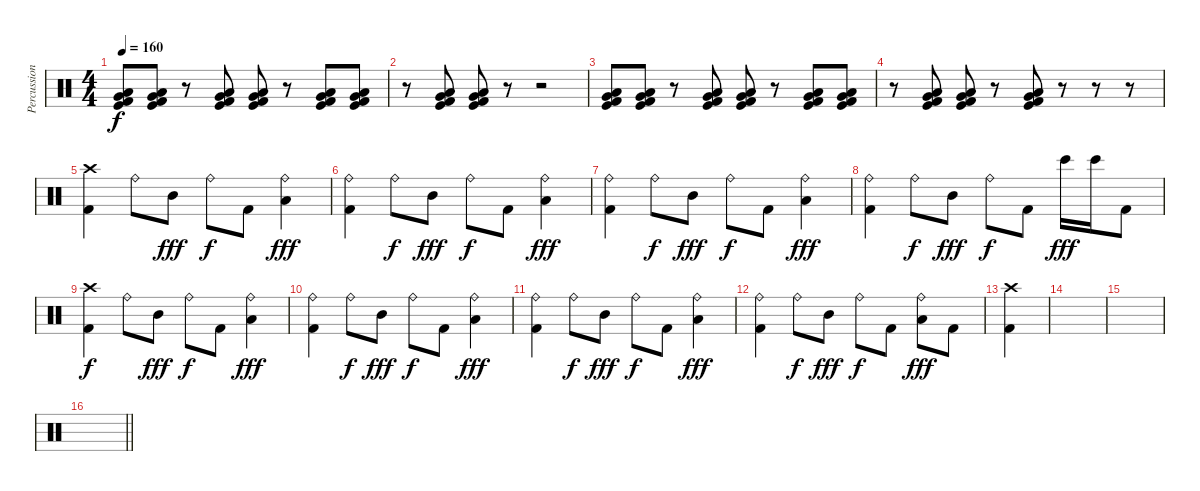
\track ("Percussion" "Percussion") {instrument percussion}
\staff {score}
\articulation defaults
\ts (4 4)
\tempo 160
\clef neutral
\ks c
("Low Floor Tom (hit)" "Very Low Tom (hit)" "Kick (hit) 2" "Kick (hit)").8{dy f} ("Low Floor Tom (hit)" "Very Low Tom (hit)" "Kick (hit) 2" "Kick (hit)").8 r.8 ("Low Floor Tom (hit)" "Very Low Tom (hit)" "Kick (hit) 2" "Kick (hit)").8 ("Low Floor Tom (hit)" "Very Low Tom (hit)" "Kick (hit) 2" "Kick (hit)").8 r.8 ("Low Floor Tom (hit)" "Very Low Tom (hit)" "Kick (hit) 2" "Kick (hit)").8 ("Low Floor Tom (hit)" "Very Low Tom (hit)" "Kick (hit) 2" "Kick (hit)").8 |
r.8 ("Low Floor Tom (hit)" "Very Low Tom (hit)" "Kick (hit) 2" "Kick (hit)").8 ("Low Floor Tom (hit)" "Very Low Tom (hit)" "Kick (hit) 2" "Kick (hit)").8 r.8 r.2 |
("Low Floor Tom (hit)" "Very Low Tom (hit)" "Kick (hit) 2" "Kick (hit)").8 ("Low Floor Tom (hit)" "Very Low Tom (hit)" "Kick (hit) 2" "Kick (hit)").8 r.8 ("Low Floor Tom (hit)" "Very Low Tom (hit)" "Kick (hit) 2" "Kick (hit)").8 ("Low Floor Tom (hit)" "Very Low Tom (hit)" "Kick (hit) 2" "Kick (hit)").8 r.8 ("Low Floor Tom (hit)" "Very Low Tom (hit)" "Kick (hit) 2" "Kick (hit)").8 ("Low Floor Tom (hit)" "Very Low Tom (hit)" "Kick (hit) 2" "Kick (hit)").8 |
r.8 ("Low Floor Tom (hit)" "Very Low Tom (hit)" "Kick (hit) 2" "Kick (hit)").8 ("Low Floor Tom (hit)" "Very Low Tom (hit)" "Kick (hit) 2" "Kick (hit)").8 r.8 ("Low Floor Tom (hit)" "Very Low Tom (hit)" "Kick (hit) 2" "Kick (hit)").8 r.8 r.8 r.8 |
("Kick (hit) 2" "Crash high (hit)").4 "Ride (bell)".8 "Mid Tom (hit)".8{dy fff} "Ride (bell)".8{dy f} "Kick (hit) 2".8 ("Low Tom (hit)" "Ride (bell)").4{dy fff} |
("Kick (hit) 2" "Ride (bell)").4 "Ride (bell)".8{dy f} "Mid Tom (hit)".8{dy fff} "Ride (bell)".8{dy f} "Kick (hit) 2".8 ("Low Tom (hit)" "Ride (bell)").4{dy fff} |
("Kick (hit) 2" "Ride (bell)").4 "Ride (bell)".8{dy f} "Mid Tom (hit)".8{dy fff} "Ride (bell)".8{dy f} "Kick (hit) 2".8 ("Low Tom (hit)" "Ride (bell)").4{dy fff} |
("Kick (hit) 2" "Ride (bell)").4 "Ride (bell)".8{dy f} "Mid Tom (hit)".8{dy fff} "Ride (bell)".8{dy f} "Kick (hit) 2".8 "Bongo High (hit)".16{dy fff} "Bongo High (hit)".16 "Kick (hit) 2".8 |
("Kick (hit) 2" "Crash high (hit)").4{dy f} "Ride (bell)".8 "Mid Tom (hit)".8{dy fff} "Ride (bell)".8{dy f} "Kick (hit) 2".8 ("Low Tom (hit)" "Ride (bell)").4{dy fff} |
("Kick (hit) 2" "Ride (bell)").4 "Ride (bell)".8{dy f} "Mid Tom (hit)".8{dy fff} "Ride (bell)".8{dy f} "Kick (hit) 2".8 ("Low Tom (hit)" "Ride (bell)").4{dy fff} |
("Kick (hit) 2" "Ride (bell)").4 "Ride (bell)".8{dy f} "Mid Tom (hit)".8{dy fff} "Ride (bell)".8{dy f} "Kick (hit) 2".8 ("Low Tom (hit)" "Ride (bell)").4{dy fff} |
("Kick (hit) 2" "Ride (bell)").4 "Ride (bell)".8{dy f} "Mid Tom (hit)".8{dy fff} "Ride (bell)".8{dy f} "Kick (hit) 2".8 ("Low Tom (hit)" "Ride (bell)").8{dy fff} "Kick (hit) 2".8 |
("Kick (hit) 2" "Crash high (hit)").4 |
|
|
\barLineRight lightlight
